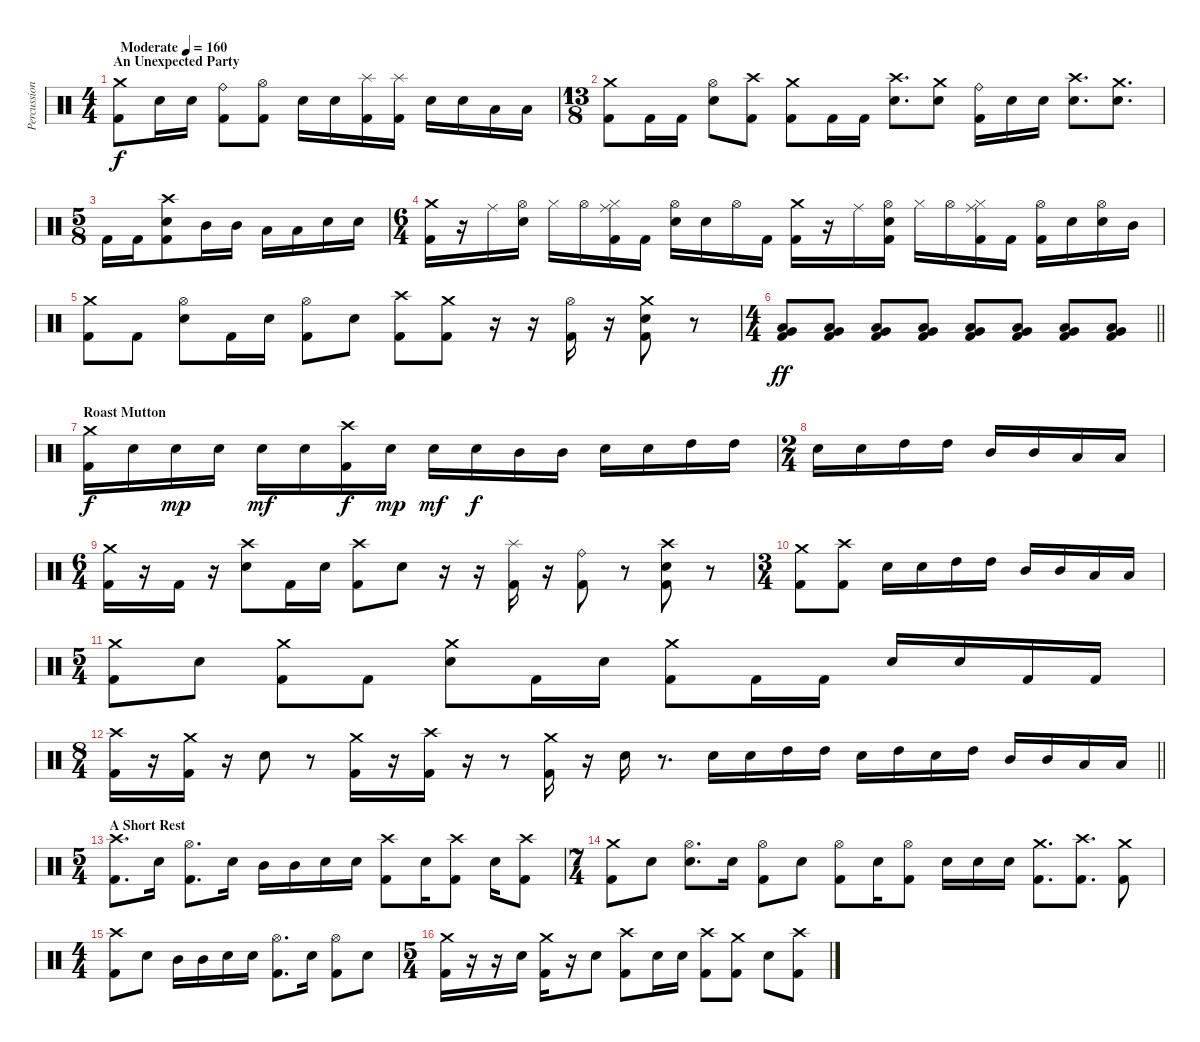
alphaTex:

\track ("Percussion" "Percussion") {instrument percussion}
\staff {score}
\articulation defaults
\ts (4 4)
\section ("" "An Unexpected Party")
\tempo (160 "Moderate")
\clef neutral
\ks c
("Crash medium (hit)" "Kick (hit) 2").8{dy f} "Electric Snare (hit)".16 "Electric Snare (hit)".16 ("Ride (bell)" "Kick (hit) 2").8 ("Hi-Hat (open)" "Kick (hit) 2").8 "Electric Snare (hit)".16 "Electric Snare (hit)".16 ("Splash (hit)" "Kick (hit) 2").16 ("Splash (hit)" "Kick (hit) 2").16 "Electric Snare (hit)".16 "Electric Snare (hit)".16 "Low Tom (hit)".16 "Low Tom (hit)".16 |
\ts (13 8)
("Crash medium (hit)" "Kick (hit) 2").8 "Kick (hit) 2".16 "Kick (hit) 2".16 ("Hi-Hat (open)" "Electric Snare (hit)").8 ("Crash high (hit)" "Kick (hit) 2").8 ("Crash medium (hit)" "Kick (hit) 2").8 "Kick (hit) 2".16 "Kick (hit) 2".16 ("Crash high (hit)" "Electric Snare (hit)").8{d} ("Crash medium (hit)" "Electric Snare (hit)").8 ("Kick (hit) 2" "Ride (bell)").16 "Electric Snare (hit)".16 "Electric Snare (hit)".16 ("Crash high (hit)" "Electric Snare (hit)").8{d} ("Crash medium (hit)" "Electric Snare (hit)").8{d} |
\ts (5 8)
"Kick (hit) 2".16 "Kick (hit) 2".16 ("Crash high (hit)" "Electric Snare (hit)" "Kick (hit) 2").8 "Mid Tom (hit)".16 "Mid Tom (hit)".16 "Low Tom (hit)".16 "Low Tom (hit)".16 "Electric Snare (hit)".16 "Electric Snare (hit)".16 |
\ts (6 4)
("Crash medium (hit)" "Kick (hit) 2").16 r.16 "Ride (middle)".16 ("Hi-Hat (open)" "Electric Snare (hit)").16 "Hi-Hat (closed)".16 "Hi-Hat (open)".16 ("Ride (middle)" "Hi-Hat (closed)" "Kick (hit) 2").16 "Kick (hit) 2".16 ("Hi-Hat (open)" "Electric Snare (hit)").16 "Electric Snare (hit)".16 "Hi-Hat (open)".16 "Kick (hit) 2".16 ("Crash medium (hit)" "Kick (hit) 2").16 r.16 "Ride (middle)".16 ("Hi-Hat (open)" "Electric Snare (hit)" "Kick (hit) 2").16 "Hi-Hat (closed)".16 "Hi-Hat (open)".16 ("Ride (middle)" "Hi-Hat (closed)" "Kick (hit) 2").16 "Kick (hit) 2".16 ("Hi-Hat (open)" "Kick (hit) 2").16 "Electric Snare (hit)".16 ("Hi-Hat (open)" "Electric Snare (hit)").16 "Mid Tom (hit)".16 |
("Crash medium (hit)" "Kick (hit) 2").8 "Kick (hit) 2".8 ("Hi-Hat (open)" "Electric Snare (hit)").8 "Kick (hit) 2".16 "Electric Snare (hit)".16 ("Hi-Hat (open)" "Kick (hit) 2").8 "Electric Snare (hit)".8 ("Crash high (hit)" "Kick (hit) 2").8 ("Crash medium (hit)" "Kick (hit) 2").8 r.16 r.16 ("Hi-Hat (open)" "Kick (hit) 2").16 r.16 ("Crash medium (hit)" "Kick (hit) 2" "Electric Snare (hit)").8 r.8 |
\ts (4 4)
\barLineRight lightlight
("Very Low Tom (hit)" "Low Tom (hit)" "Kick (hit) 2").8{dy ff} ("Very Low Tom (hit)" "Low Tom (hit)" "Kick (hit) 2").8 ("Very Low Tom (hit)" "Low Tom (hit)" "Kick (hit) 2").8 ("Very Low Tom (hit)" "Low Tom (hit)" "Kick (hit) 2").8 ("Very Low Tom (hit)" "Low Tom (hit)" "Kick (hit) 2").8 ("Very Low Tom (hit)" "Low Tom (hit)" "Kick (hit) 2").8 ("Very Low Tom (hit)" "Low Tom (hit)" "Kick (hit) 2").8 ("Very Low Tom (hit)" "Low Tom (hit)" "Kick (hit) 2").8 |
\section ("" "Roast Mutton")
("Crash medium (hit)" "Kick (hit) 2").16{dy f} "Electric Snare (hit)".16 "Electric Snare (hit)".16{dy mp} "Electric Snare (hit)".16 "Electric Snare (hit)".16{dy mf} "Electric Snare (hit)".16 ("Crash high (hit)" "Kick (hit) 2").16{dy f} "Electric Snare (hit)".16{dy mp} "Electric Snare (hit)".16{dy mf} "Electric Snare (hit)".16{dy f} "Mid Tom (hit)".16 "Mid Tom (hit)".16 "Electric Snare (hit)".16 "Electric Snare (hit)".16 "High Tom (hit)".16 "High Tom (hit)".16 |
\ts (2 4)
"Electric Snare (hit)".16 "Electric Snare (hit)".16 "High Tom (hit)".16 "High Tom (hit)".16 "Mid Tom (hit)".16 "Mid Tom (hit)".16 "Low Tom (hit)".16 "Low Tom (hit)".16 |
\ts (6 4)
("Crash medium (hit)" "Kick (hit) 2").16 r.16 "Kick (hit) 2".16 r.16 ("Crash high (hit)" "Electric Snare (hit)").8 "Kick (hit) 2".16 "Electric Snare (hit)".16 ("Crash high (hit)" "Kick (hit) 2").8 "Electric Snare (hit)".8 r.16 r.16 ("Splash (hit)" "Kick (hit) 2").16 r.16 ("Ride (bell)" "Kick (hit) 2").8 r.8 ("Crash high (hit)" "Electric Snare (hit)" "Kick (hit) 2").8 r.8 |
\ts (3 4)
("Crash medium (hit)" "Kick (hit) 2").8 ("Crash high (hit)" "Kick (hit) 2").8 "Electric Snare (hit)".16 "Electric Snare (hit)".16 "High Tom (hit)".16 "High Tom (hit)".16 "Mid Tom (hit)".16 "Mid Tom (hit)".16 "Low Tom (hit)".16 "Low Tom (hit)".16 |
\ts (5 4)
("Crash medium (hit)" "Kick (hit) 2").8 "Electric Snare (hit)".8 ("Crash medium (hit)" "Kick (hit) 2").8 "Kick (hit) 2".8 ("Crash medium (hit)" "Electric Snare (hit)").8 "Kick (hit) 2".16 "Electric Snare (hit)".16 ("Crash medium (hit)" "Kick (hit) 2").8 "Kick (hit) 2".16 "Kick (hit) 2".16 "Electric Snare (hit)".16 "Electric Snare (hit)".16 "Kick (hit) 2".16 "Kick (hit) 2".16 |
\ts (8 4)
\barLineRight lightlight
("Crash high (hit)" "Kick (hit) 2").16 r.16 ("Crash medium (hit)" "Kick (hit) 2").16 r.16 "Electric Snare (hit)".8 r.8 ("Crash medium (hit)" "Kick (hit) 2").16 r.16 ("Crash high (hit)" "Kick (hit) 2").16 r.16 r.8 ("Crash medium (hit)" "Kick (hit) 2").16 r.16 "Electric Snare (hit)".16 r.8{d} "Electric Snare (hit)".16 "Electric Snare (hit)".16 "High Tom (hit)".16 "High Tom (hit)".16 "Electric Snare (hit)".16 "High Tom (hit)".16 "Electric Snare (hit)".16 "High Tom (hit)".16 "Mid Tom (hit)".16 "Mid Tom (hit)".16 "Low Tom (hit)".16 "Low Tom (hit)".16 |
\ts (5 4)
\section ("" "A Short Rest")
("Kick (hit) 2" "Crash high (hit)").8{d} "Electric Snare (hit)".16 ("Kick (hit) 2" "Hi-Hat (open)").8{d} "Electric Snare (hit)".16 "Mid Tom (hit)".16 "Mid Tom (hit)".16 "Electric Snare (hit)".16 "Electric Snare (hit)".16 ("Kick (hit) 2" "Crash high (hit)").8 "Electric Snare (hit)".16 ("Kick (hit) 2" "Crash high (hit)").8 "Electric Snare (hit)".16 ("Kick (hit) 2" "Crash high (hit)").8 |
\ts (7 4)
("Kick (hit) 2" "Crash medium (hit)").8 "Electric Snare (hit)".8 ("Electric Snare (hit)" "Hi-Hat (open)").8{d} "Electric Snare (hit)".16 ("Hi-Hat (open)" "Kick (hit) 2").8 "Electric Snare (hit)".8 ("Kick (hit) 2" "Hi-Hat (open)").8 "Electric Snare (hit)".16 ("Kick (hit) 2" "Hi-Hat (open)").8 "Electric Snare (hit)".16 "Electric Snare (hit)".16 "Electric Snare (hit)".16 ("Kick (hit) 2" "Crash medium (hit)").8{d} ("Kick (hit) 2" "Crash high (hit)").8{d} ("Kick (hit) 2" "Crash medium (hit)").8 |
\ts (4 4)
("Kick (hit) 2" "Crash high (hit)").8 "Electric Snare (hit)".8 "Mid Tom (hit)".16 "Mid Tom (hit)".16 "Electric Snare (hit)".16 "Electric Snare (hit)".16 ("Kick (hit) 2" "Hi-Hat (open)").8{d} "Electric Snare (hit)".16 ("Kick (hit) 2" "Hi-Hat (open)").8 "Electric Snare (hit)".8 |
\ts (5 4)
("Crash medium (hit)" "Kick (hit) 2").16 r.16 r.16 "Electric Snare (hit)".16 ("Crash medium (hit)" "Kick (hit) 2").16 r.16 "Electric Snare (hit)".8 ("Kick (hit) 2" "Crash high (hit)").8 "Electric Snare (hit)".16 "Electric Snare (hit)".16 ("Kick (hit) 2" "Crash high (hit)").8 ("Kick (hit) 2" "Crash medium (hit)").8 "Electric Snare (hit)".8 ("Kick (hit) 2" "Crash high (hit)").8
